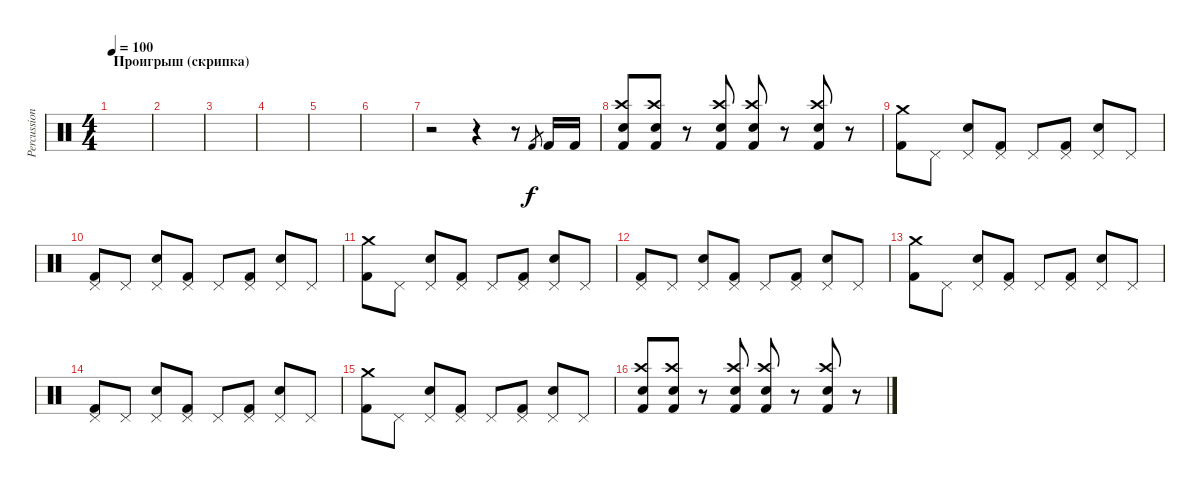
\track ("Percussion" "Percussion") {instrument percussion}
\staff {score}
\articulation defaults
\ts (4 4)
\section ("" "Проигрыш (скрипка)")
\tempo 100
\clef neutral
\ks c
|
|
|
|
|
|
r.2 r.4 r.8 "Kick (hit) 2".8{gr} "Kick (hit) 2".16 "Kick (hit) 2".16 |
("Crash high (hit)" "Snare (hit) 2" "Kick (hit) 2").8 ("Crash high (hit)" "Snare (hit) 2" "Kick (hit) 2").8 r.8 ("Crash high (hit)" "Electric Snare (hit)" "Kick (hit) 2").8 ("Crash high (hit)" "Electric Snare (hit)" "Kick (hit) 2").8 r.8 ("Crash high (hit)" "Electric Snare (hit)" "Kick (hit) 2").8 r.8 |
("Crash medium (hit)" "Kick (hit) 2").8 "Pedal Hi-Hat (hit)".8 ("Pedal Hi-Hat (hit)" "Electric Snare (hit)").8 ("Pedal Hi-Hat (hit)" "Kick (hit) 2").8 "Pedal Hi-Hat (hit)".8 ("Pedal Hi-Hat (hit)" "Kick (hit) 2").8 ("Pedal Hi-Hat (hit)" "Electric Snare (hit)").8 "Pedal Hi-Hat (hit)".8 |
("Pedal Hi-Hat (hit)" "Kick (hit) 2").8 "Pedal Hi-Hat (hit)".8 ("Pedal Hi-Hat (hit)" "Electric Snare (hit)").8 ("Pedal Hi-Hat (hit)" "Kick (hit) 2").8 "Pedal Hi-Hat (hit)".8 ("Pedal Hi-Hat (hit)" "Kick (hit) 2").8 ("Pedal Hi-Hat (hit)" "Electric Snare (hit)").8 "Pedal Hi-Hat (hit)".8 |
("Crash medium (hit)" "Kick (hit) 2").8 "Pedal Hi-Hat (hit)".8 ("Pedal Hi-Hat (hit)" "Electric Snare (hit)").8 ("Pedal Hi-Hat (hit)" "Kick (hit) 2").8 "Pedal Hi-Hat (hit)".8 ("Pedal Hi-Hat (hit)" "Kick (hit) 2").8 ("Pedal Hi-Hat (hit)" "Electric Snare (hit)").8 "Pedal Hi-Hat (hit)".8 |
("Pedal Hi-Hat (hit)" "Kick (hit) 2").8 "Pedal Hi-Hat (hit)".8 ("Pedal Hi-Hat (hit)" "Electric Snare (hit)").8 ("Pedal Hi-Hat (hit)" "Kick (hit) 2").8 "Pedal Hi-Hat (hit)".8 ("Pedal Hi-Hat (hit)" "Kick (hit) 2").8 ("Pedal Hi-Hat (hit)" "Electric Snare (hit)").8 "Pedal Hi-Hat (hit)".8 |
("Crash medium (hit)" "Kick (hit) 2").8 "Pedal Hi-Hat (hit)".8 ("Pedal Hi-Hat (hit)" "Electric Snare (hit)").8 ("Pedal Hi-Hat (hit)" "Kick (hit) 2").8 "Pedal Hi-Hat (hit)".8 ("Pedal Hi-Hat (hit)" "Kick (hit) 2").8 ("Pedal Hi-Hat (hit)" "Electric Snare (hit)").8 "Pedal Hi-Hat (hit)".8 |
("Pedal Hi-Hat (hit)" "Kick (hit) 2").8 "Pedal Hi-Hat (hit)".8 ("Pedal Hi-Hat (hit)" "Electric Snare (hit)").8 ("Pedal Hi-Hat (hit)" "Kick (hit) 2").8 "Pedal Hi-Hat (hit)".8 ("Pedal Hi-Hat (hit)" "Kick (hit) 2").8 ("Pedal Hi-Hat (hit)" "Electric Snare (hit)").8 "Pedal Hi-Hat (hit)".8 |
("Crash medium (hit)" "Kick (hit) 2").8 "Pedal Hi-Hat (hit)".8 ("Pedal Hi-Hat (hit)" "Electric Snare (hit)").8 ("Pedal Hi-Hat (hit)" "Kick (hit) 2").8 "Pedal Hi-Hat (hit)".8 ("Pedal Hi-Hat (hit)" "Kick (hit) 2").8 ("Pedal Hi-Hat (hit)" "Electric Snare (hit)").8 "Pedal Hi-Hat (hit)".8 |
("Crash high (hit)" "Snare (hit) 2" "Kick (hit) 2").8 ("Crash high (hit)" "Snare (hit) 2" "Kick (hit) 2").8 r.8 ("Crash high (hit)" "Electric Snare (hit)" "Kick (hit) 2").8 ("Crash high (hit)" "Electric Snare (hit)" "Kick (hit) 2").8 r.8 ("Crash high (hit)" "Electric Snare (hit)" "Kick (hit) 2").8 r.8
